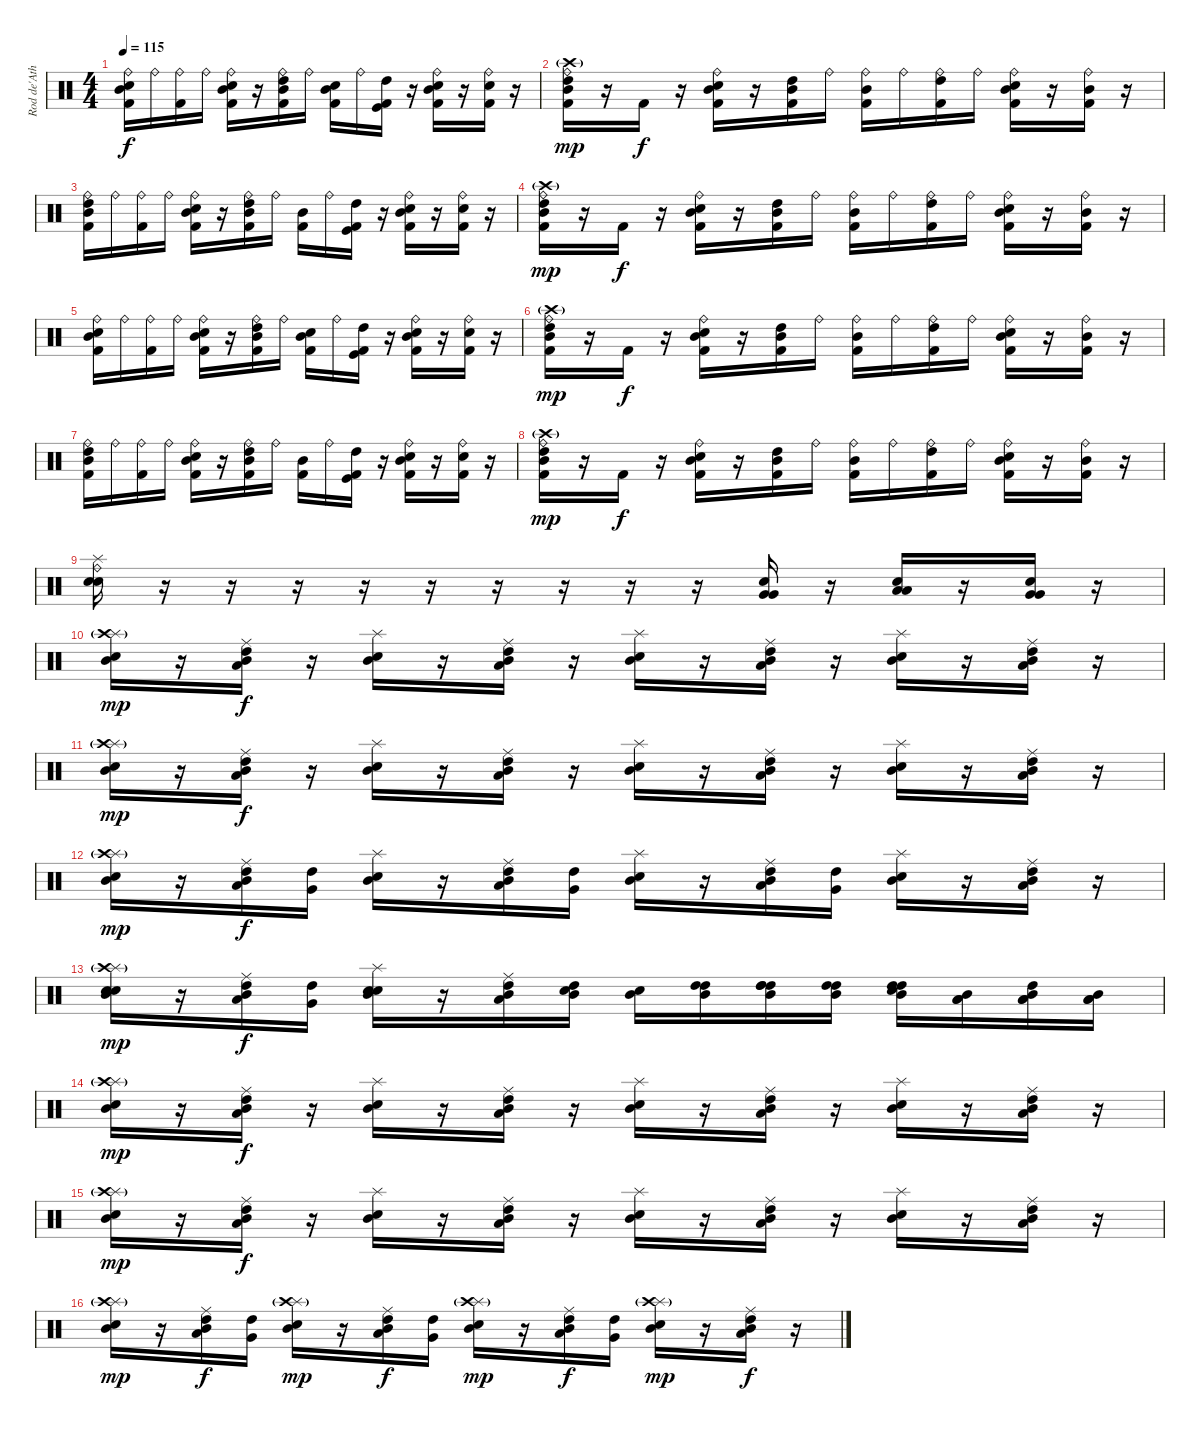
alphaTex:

\track ("Rod de'Ath" "Rod de'Ath") {instrument percussion}
\staff {score}
\articulation defaults
\ts (4 4)
\tempo 115
\clef neutral
\ks c
("Ride (bell)" "Snare (hit) 2" "Mid Tom (hit)" "Kick (hit) 2").16{dy f} "Ride (bell)".16 ("Ride (bell)" "Kick (hit) 2").16 "Ride (bell)".16 ("Ride (bell)" "Snare (hit) 2" "Mid Tom (hit)" "Kick (hit) 2").16 r.16 ("Ride (bell)" "High Tom (hit)" "Mid Tom (hit)" "Kick (hit) 2").16 "Ride (bell)".16 ("Snare (hit) 2" "Mid Tom (hit)" "Kick (hit) 2").16 "Ride (bell)".16 ("Kick (hit)" "High Tom (hit)" "Kick (hit) 2").16 r.16 ("Ride (bell)" "Snare (hit) 2" "Mid Tom (hit)" "Kick (hit) 2").16 r.16 ("Ride (bell)" "Electric Snare (hit)" "Kick (hit) 2").16 r.16 |
("Ride (bell)" "High Tom (hit)" "Mid Tom (hit)" "Kick (hit) 2" "Crash high (hit)"{g}).16{dy mp} r.16 "Kick (hit) 2".16{dy f} r.16 ("Ride (bell)" "Snare (hit) 2" "Mid Tom (hit)" "Kick (hit) 2").16 r.16 ("High Tom (hit)" "Mid Tom (hit)" "Kick (hit) 2").16 "Ride (bell)".16 ("Ride (bell)" "Mid Tom (hit)" "Kick (hit) 2").16 "Ride (bell)".16 ("Ride (bell)" "High Tom (hit)" "Kick (hit) 2").16 "Ride (bell)".16 ("Ride (bell)" "Snare (hit) 2" "Mid Tom (hit)" "Kick (hit) 2").16 r.16 ("Ride (bell)" "Mid Tom (hit)" "Kick (hit) 2").16 r.16 |
("Ride (bell)" "High Tom (hit)" "Mid Tom (hit)" "Kick (hit) 2").16 "Ride (bell)".16 ("Ride (bell)" "Kick (hit) 2").16 "Ride (bell)".16 ("Ride (bell)" "Snare (hit) 2" "Mid Tom (hit)" "Kick (hit) 2").16 r.16 ("Ride (bell)" "High Tom (hit)" "Mid Tom (hit)" "Kick (hit) 2").16 "Ride (bell)".16 ("Mid Tom (hit)" "Kick (hit) 2").16 "Ride (bell)".16 ("Kick (hit)" "High Tom (hit)" "Kick (hit) 2").16 r.16 ("Ride (bell)" "Snare (hit) 2" "Mid Tom (hit)" "Kick (hit) 2").16 r.16 ("Ride (bell)" "Electric Snare (hit)" "Kick (hit) 2").16 r.16 |
("Ride (bell)" "High Tom (hit)" "Mid Tom (hit)" "Kick (hit) 2" "Crash high (hit)"{g}).16{dy mp} r.16 "Kick (hit) 2".16{dy f} r.16 ("Ride (bell)" "Snare (hit) 2" "Mid Tom (hit)" "Kick (hit) 2").16 r.16 ("High Tom (hit)" "Mid Tom (hit)" "Kick (hit) 2").16 "Ride (bell)".16 ("Ride (bell)" "Mid Tom (hit)" "Kick (hit) 2").16 "Ride (bell)".16 ("Ride (bell)" "High Tom (hit)" "Kick (hit) 2").16 "Ride (bell)".16 ("Ride (bell)" "Snare (hit) 2" "Mid Tom (hit)" "Kick (hit) 2").16 r.16 ("Ride (bell)" "Mid Tom (hit)" "Kick (hit) 2").16 r.16 |
("Ride (bell)" "Electric Snare (hit)" "Mid Tom (hit)" "Kick (hit) 2").16 "Ride (bell)".16 ("Ride (bell)" "Kick (hit) 2").16 "Ride (bell)".16 ("Ride (bell)" "Electric Snare (hit)" "Mid Tom (hit)" "Kick (hit) 2").16 r.16 ("Ride (bell)" "High Tom (hit)" "Mid Tom (hit)" "Kick (hit) 2").16 "Ride (bell)".16 ("Electric Snare (hit)" "Mid Tom (hit)" "Kick (hit) 2").16 "Ride (bell)".16 ("Kick (hit)" "High Tom (hit)" "Kick (hit) 2").16 r.16 ("Ride (bell)" "Electric Snare (hit)" "Mid Tom (hit)" "Kick (hit) 2").16 r.16 ("Ride (bell)" "Electric Snare (hit)" "Kick (hit) 2").16 r.16 |
("Ride (bell)" "High Tom (hit)" "Mid Tom (hit)" "Kick (hit) 2" "Crash high (hit)"{g}).16{dy mp} r.16 "Kick (hit) 2".16{dy f} r.16 ("Ride (bell)" "Snare (hit) 2" "Mid Tom (hit)" "Kick (hit) 2").16 r.16 ("High Tom (hit)" "Mid Tom (hit)" "Kick (hit) 2").16 "Ride (bell)".16 ("Ride (bell)" "Mid Tom (hit)" "Kick (hit) 2").16 "Ride (bell)".16 ("Ride (bell)" "High Tom (hit)" "Kick (hit) 2").16 "Ride (bell)".16 ("Ride (bell)" "Snare (hit) 2" "Mid Tom (hit)" "Kick (hit) 2").16 r.16 ("Ride (bell)" "Mid Tom (hit)" "Kick (hit) 2").16 r.16 |
("Ride (bell)" "High Tom (hit)" "Mid Tom (hit)" "Kick (hit) 2").16 "Ride (bell)".16 ("Ride (bell)" "Kick (hit) 2").16 "Ride (bell)".16 ("Ride (bell)" "Snare (hit) 2" "Mid Tom (hit)" "Kick (hit) 2").16 r.16 ("Ride (bell)" "High Tom (hit)" "Mid Tom (hit)" "Kick (hit) 2").16 "Ride (bell)".16 ("Mid Tom (hit)" "Kick (hit) 2").16 "Ride (bell)".16 ("Kick (hit)" "High Tom (hit)" "Kick (hit) 2").16 r.16 ("Ride (bell)" "Snare (hit) 2" "Mid Tom (hit)" "Kick (hit) 2").16 r.16 ("Ride (bell)" "Electric Snare (hit)" "Kick (hit) 2").16 r.16 |
("Ride (bell)" "High Tom (hit)" "Mid Tom (hit)" "Kick (hit) 2" "Crash high (hit)"{g}).16{dy mp} r.16 "Kick (hit) 2".16{dy f} r.16 ("Ride (bell)" "Snare (hit) 2" "Mid Tom (hit)" "Kick (hit) 2").16 r.16 ("High Tom (hit)" "Mid Tom (hit)" "Kick (hit) 2").16 "Ride (bell)".16 ("Ride (bell)" "Mid Tom (hit)" "Kick (hit) 2").16 "Ride (bell)".16 ("Ride (bell)" "High Tom (hit)" "Kick (hit) 2").16 "Ride (bell)".16 ("Ride (bell)" "Snare (hit) 2" "Mid Tom (hit)" "Kick (hit) 2").16 r.16 ("Ride (bell)" "Mid Tom (hit)" "Kick (hit) 2").16 r.16 |
("Ride (bell)" "Electric Snare (hit)" "Snare (hit) 2" "Splash (hit)").16 r.16 r.16 r.16 r.16 r.16 r.16 r.16 r.16 r.16 ("Snare (hit) 2" "Very Low Tom (hit)" "Very Low Tom (hit)").16 r.16 ("Electric Snare (hit)" "Low Tom (hit)" "Low Tom (hit)").16 r.16 ("Snare (hit) 2" "Very Low Tom (hit)" "Very Low Tom (hit)").16 r.16 |
("Splash (hit)" "Snare (hit) 2" "Crash high (hit)"{g} "Mid Tom (hit)").16{dy mp} r.16 ("Ride (middle)" "Low Tom (hit)" "High Tom (hit)" "Mid Tom (hit)").16{dy f} r.16 ("Splash (hit)" "Snare (hit) 2" "Mid Tom (hit)").16 r.16 ("Ride (middle)" "Low Tom (hit)" "High Tom (hit)" "Mid Tom (hit)").16 r.16 ("Splash (hit)" "Snare (hit) 2" "Mid Tom (hit)").16 r.16 ("Ride (middle)" "Low Tom (hit)" "High Tom (hit)" "Mid Tom (hit)").16 r.16 ("Splash (hit)" "Snare (hit) 2" "Mid Tom (hit)").16 r.16 ("Ride (middle)" "Low Tom (hit)" "High Tom (hit)" "Mid Tom (hit)").16 r.16 |
("Splash (hit)" "Snare (hit) 2" "Crash high (hit)"{g} "Mid Tom (hit)").16{dy mp} r.16 ("Ride (middle)" "Low Tom (hit)" "High Tom (hit)" "Mid Tom (hit)").16{dy f} r.16 ("Splash (hit)" "Snare (hit) 2" "Mid Tom (hit)").16 r.16 ("Ride (middle)" "Low Tom (hit)" "High Tom (hit)" "Mid Tom (hit)").16 r.16 ("Splash (hit)" "Snare (hit) 2" "Mid Tom (hit)").16 r.16 ("Ride (middle)" "Low Tom (hit)" "High Tom (hit)" "Mid Tom (hit)").16 r.16 ("Splash (hit)" "Snare (hit) 2" "Mid Tom (hit)").16 r.16 ("Ride (middle)" "Low Tom (hit)" "High Tom (hit)" "Mid Tom (hit)").16 r.16 |
("Splash (hit)" "Snare (hit) 2" "Crash high (hit)"{g} "Mid Tom (hit)").16{dy mp} r.16 ("Ride (middle)" "Low Tom (hit)" "High Tom (hit)" "Mid Tom (hit)").16{dy f} ("Very Low Tom (hit)" "High Tom (hit)").16 ("Splash (hit)" "Snare (hit) 2" "Mid Tom (hit)").16 r.16 ("Ride (middle)" "Low Tom (hit)" "High Tom (hit)" "Mid Tom (hit)").16 ("Very Low Tom (hit)" "High Tom (hit)").16 ("Splash (hit)" "Snare (hit) 2" "Mid Tom (hit)").16 r.16 ("Ride (middle)" "Low Tom (hit)" "High Tom (hit)" "Mid Tom (hit)").16 ("Very Low Tom (hit)" "High Tom (hit)").16 ("Splash (hit)" "Snare (hit) 2" "Mid Tom (hit)").16 r.16 ("Ride (middle)" "Low Tom (hit)" "High Tom (hit)" "Mid Tom (hit)").16 r.16 |
("Splash (hit)" "Snare (hit) 2" "Electric Snare (hit)" "Crash high (hit)"{g} "Mid Tom (hit)").16{dy mp} r.16 ("Ride (middle)" "Low Tom (hit)" "High Tom (hit)" "Mid Tom (hit)").16{dy f} ("High Tom (hit)" "Very Low Tom (hit)").16 ("Splash (hit)" "Snare (hit) 2" "Electric Snare (hit)" "Mid Tom (hit)").16 r.16 ("Ride (middle)" "Low Tom (hit)" "High Tom (hit)" "Mid Tom (hit)").16 ("Electric Snare (hit)" "High Tom (hit)" "Mid Tom (hit)").16 ("Electric Snare (hit)" "Mid Tom (hit)").16 ("High Tom (hit)" "High Tom (hit)" "Mid Tom (hit)").16 ("High Tom (hit)" "High Tom (hit)" "High Tom (hit)" "Mid Tom (hit)").16 ("High Tom (hit)" "High Tom (hit)" "Mid Tom (hit)").16 ("High Tom (hit)" "High Tom (hit)" "Electric Snare (hit)" "Mid Tom (hit)").16 ("Low Tom (hit)" "Low Tom (hit)" "Mid Tom (hit)").16 ("Low Tom (hit)" "Low Tom (hit)" "High Tom (hit)" "Mid Tom (hit)").16 ("Low Tom (hit)" "Low Tom (hit)" "Mid Tom (hit)").16 |
("Splash (hit)" "Snare (hit) 2" "Crash high (hit)"{g} "Mid Tom (hit)").16{dy mp} r.16 ("Ride (middle)" "Low Tom (hit)" "High Tom (hit)" "Mid Tom (hit)").16{dy f} r.16 ("Splash (hit)" "Snare (hit) 2" "Mid Tom (hit)").16 r.16 ("Ride (middle)" "Low Tom (hit)" "High Tom (hit)" "Mid Tom (hit)").16 r.16 ("Splash (hit)" "Snare (hit) 2" "Mid Tom (hit)").16 r.16 ("Ride (middle)" "Low Tom (hit)" "High Tom (hit)" "Mid Tom (hit)").16 r.16 ("Splash (hit)" "Snare (hit) 2" "Mid Tom (hit)").16 r.16 ("Ride (middle)" "Low Tom (hit)" "High Tom (hit)" "Mid Tom (hit)").16 r.16 |
("Splash (hit)" "Snare (hit) 2" "Crash high (hit)"{g} "Mid Tom (hit)").16{dy mp} r.16 ("Ride (middle)" "Low Tom (hit)" "High Tom (hit)" "Mid Tom (hit)").16{dy f} r.16 ("Splash (hit)" "Snare (hit) 2" "Mid Tom (hit)").16 r.16 ("Ride (middle)" "Low Tom (hit)" "High Tom (hit)" "Mid Tom (hit)").16 r.16 ("Splash (hit)" "Snare (hit) 2" "Mid Tom (hit)").16 r.16 ("Ride (middle)" "Low Tom (hit)" "High Tom (hit)" "Mid Tom (hit)").16 r.16 ("Splash (hit)" "Snare (hit) 2" "Mid Tom (hit)").16 r.16 ("Ride (middle)" "Low Tom (hit)" "High Tom (hit)" "Mid Tom (hit)").16 r.16 |
("Splash (hit)" "Snare (hit) 2" "Crash high (hit)"{g} "Mid Tom (hit)").16{dy mp} r.16 ("Ride (middle)" "Low Tom (hit)" "High Tom (hit)" "Mid Tom (hit)").16{dy f} ("Very Low Tom (hit)" "High Tom (hit)").16 ("Splash (hit)" "Snare (hit) 2" "Crash high (hit)"{g} "Mid Tom (hit)").16{dy mp} r.16 ("Ride (middle)" "Low Tom (hit)" "High Tom (hit)" "Mid Tom (hit)").16{dy f} ("Very Low Tom (hit)" "High Tom (hit)").16 ("Splash (hit)" "Snare (hit) 2" "Crash high (hit)"{g} "Mid Tom (hit)").16{dy mp} r.16 ("Ride (middle)" "Low Tom (hit)" "High Tom (hit)" "Mid Tom (hit)").16{dy f} ("Very Low Tom (hit)" "High Tom (hit)").16 ("Splash (hit)" "Snare (hit) 2" "Crash high (hit)"{g} "Mid Tom (hit)").16{dy mp} r.16 ("Ride (middle)" "Low Tom (hit)" "High Tom (hit)" "Mid Tom (hit)").16{dy f} r.16
